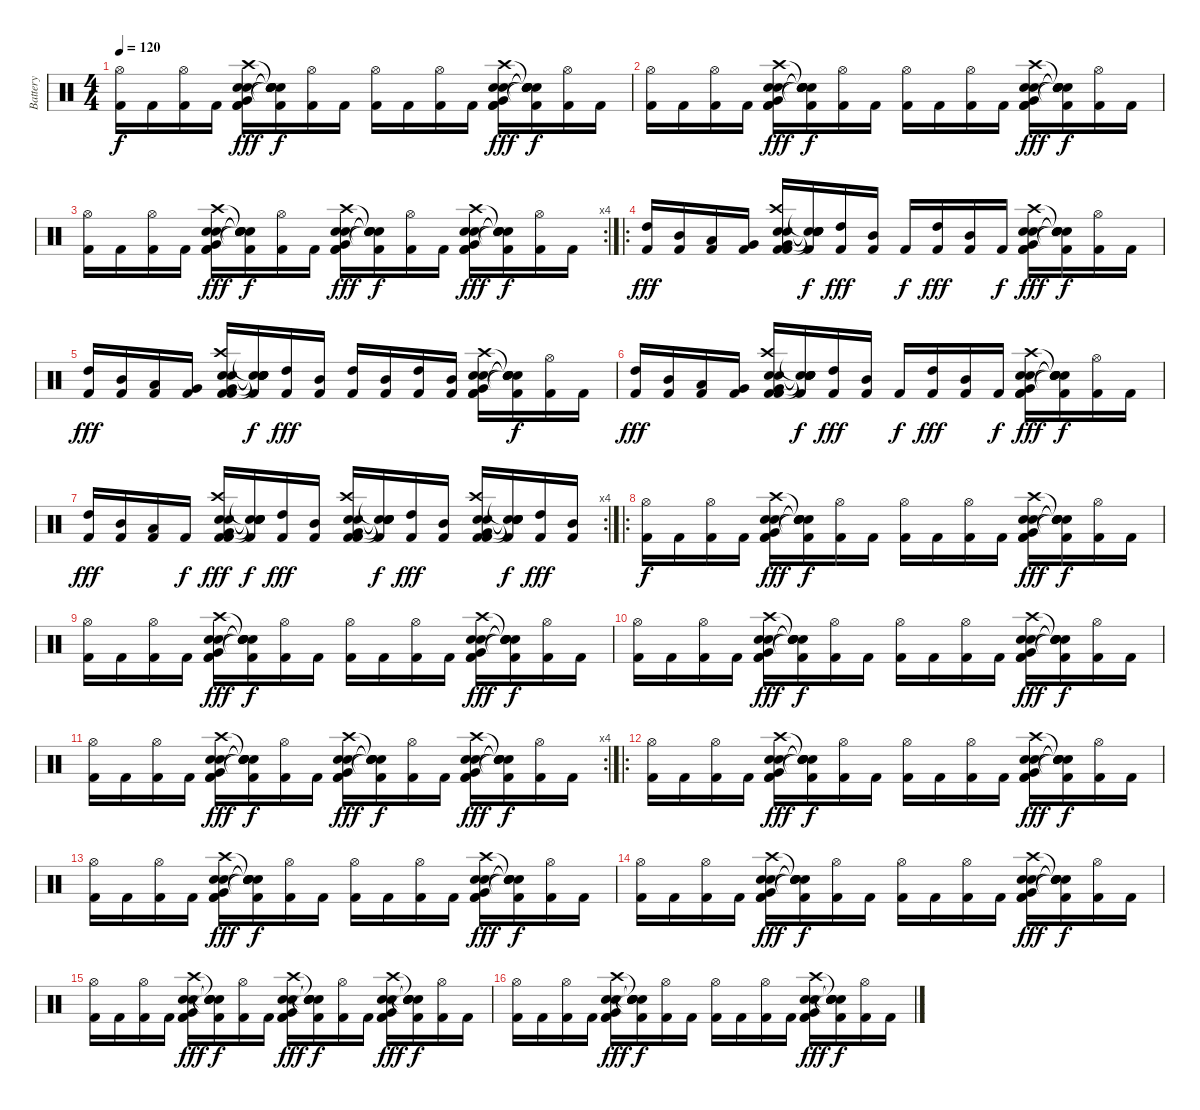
\track ("Battery" "Battery") {instrument percussion}
\staff {score}
\articulation defaults
\ts (4 4)
\tempo 120
\clef neutral
\ks c
("Hi-Hat (open)" "Kick (hit) 2").16{dy f} "Kick (hit) 2".16 ("Hi-Hat (open)" "Kick (hit) 2").16 "Kick (hit) 2".16 ("Crash high (hit)" "Kick (hit) 2" "Electric Snare (hit)" "Very Low Tom (hit)" "Electric Snare (hit)" "Kick (hit) 2").16{dy fff} ("Snare (hit)"{t} "Snare (hit)"{t} "Snare (hit)"{t} "Snare (hit)"{t} "Electric Snare (hit)"{t} "Kick (hit) 2").16{dy f} ("Hi-Hat (open)" "Kick (hit) 2").16 "Kick (hit) 2".16 ("Hi-Hat (open)" "Kick (hit) 2").16 "Kick (hit) 2".16 ("Hi-Hat (open)" "Kick (hit) 2").16 "Kick (hit) 2".16 ("Crash high (hit)" "Kick (hit) 2" "Electric Snare (hit)" "Very Low Tom (hit)" "Electric Snare (hit)" "Kick (hit) 2").16{dy fff} ("Snare (hit)"{t} "Snare (hit)"{t} "Snare (hit)"{t} "Snare (hit)"{t} "Snare (hit)"{t} "Kick (hit) 2").16{dy f} ("Hi-Hat (open)" "Kick (hit) 2").16 "Kick (hit) 2".16 |
("Hi-Hat (open)" "Kick (hit) 2").16 "Kick (hit) 2".16 ("Hi-Hat (open)" "Kick (hit) 2").16 "Kick (hit) 2".16 ("Crash high (hit)" "Kick (hit) 2" "Electric Snare (hit)" "Very Low Tom (hit)" "Electric Snare (hit)" "Kick (hit) 2").16{dy fff} ("Snare (hit)"{t} "Snare (hit)"{t} "Snare (hit)"{t} "Snare (hit)"{t} "Electric Snare (hit)"{t} "Kick (hit) 2").16{dy f} ("Hi-Hat (open)" "Kick (hit) 2").16 "Kick (hit) 2".16 ("Hi-Hat (open)" "Kick (hit) 2").16 "Kick (hit) 2".16 ("Hi-Hat (open)" "Kick (hit) 2").16 "Kick (hit) 2".16 ("Crash high (hit)" "Kick (hit) 2" "Electric Snare (hit)" "Very Low Tom (hit)" "Electric Snare (hit)" "Kick (hit) 2").16{dy fff} ("Snare (hit)"{t} "Snare (hit)"{t} "Snare (hit)"{t} "Snare (hit)"{t} "Snare (hit)"{t} "Kick (hit) 2").16{dy f} ("Hi-Hat (open)" "Kick (hit) 2").16 "Kick (hit) 2".16 |
\rc 4
("Hi-Hat (open)" "Kick (hit) 2").16 "Kick (hit) 2".16 ("Hi-Hat (open)" "Kick (hit) 2").16 "Kick (hit) 2".16 ("Crash high (hit)" "Kick (hit) 2" "Electric Snare (hit)" "Very Low Tom (hit)" "Electric Snare (hit)" "Kick (hit) 2").16{dy fff} ("Snare (hit)"{t} "Snare (hit)"{t} "Snare (hit)"{t} "Snare (hit)"{t} "Electric Snare (hit)"{t} "Kick (hit) 2").16{dy f} ("Hi-Hat (open)" "Kick (hit) 2").16 "Kick (hit) 2".16 ("Crash high (hit)" "Kick (hit) 2" "Electric Snare (hit)" "Very Low Tom (hit)" "Electric Snare (hit)" "Kick (hit) 2").16{dy fff} ("Snare (hit)"{t} "Snare (hit)"{t} "Snare (hit)"{t} "Snare (hit)"{t} "Snare (hit)"{t} "Kick (hit) 2").16{dy f} ("Hi-Hat (open)" "Kick (hit) 2").16 "Kick (hit) 2".16 ("Crash high (hit)" "Kick (hit) 2" "Electric Snare (hit)" "Very Low Tom (hit)" "Electric Snare (hit)" "Kick (hit) 2").16{dy fff} ("Snare (hit)"{t} "Snare (hit)"{t} "Snare (hit)"{t} "Snare (hit)"{t} "Snare (hit)"{t} "Kick (hit) 2").16{dy f} ("Hi-Hat (open)" "Kick (hit) 2").16 "Kick (hit) 2".16 |
\ro
("High Tom (hit)" "Kick (hit) 2").16{dy fff} ("Mid Tom (hit)" "Kick (hit) 2").16 ("Low Tom (hit)" "Kick (hit) 2").16 ("Very Low Tom (hit)" "Kick (hit) 2").16 ("Crash high (hit)" "Kick (hit) 2" "Electric Snare (hit)" "Very Low Tom (hit)" "Electric Snare (hit)" "Kick (hit) 2").16 ("Snare (hit)"{t} "Snare (hit)"{t} "Snare (hit)"{t} "Snare (hit)"{t} "Electric Snare (hit)"{t} "Kick (hit) 2").16{dy f} ("High Tom (hit)" "Kick (hit) 2").16{dy fff} ("Mid Tom (hit)" "Kick (hit) 2").16 "Kick (hit) 2".16{dy f} ("High Tom (hit)" "Kick (hit) 2").16{dy fff} ("Mid Tom (hit)" "Kick (hit) 2").16 "Kick (hit) 2".16{dy f} ("Crash high (hit)" "Kick (hit) 2" "Electric Snare (hit)" "Very Low Tom (hit)" "Electric Snare (hit)" "Kick (hit) 2").16{dy fff} ("Snare (hit)"{t} "Snare (hit)"{t} "Snare (hit)"{t} "Snare (hit)"{t} "Snare (hit)"{t} "Kick (hit) 2").16{dy f} ("Hi-Hat (open)" "Kick (hit) 2").16 "Kick (hit) 2".16 |
("High Tom (hit)" "Kick (hit) 2").16{dy fff} ("Mid Tom (hit)" "Kick (hit) 2").16 ("Low Tom (hit)" "Kick (hit) 2").16 ("Very Low Tom (hit)" "Kick (hit) 2").16 ("Crash high (hit)" "Kick (hit) 2" "Electric Snare (hit)" "Very Low Tom (hit)" "Electric Snare (hit)" "Kick (hit) 2").16 ("Snare (hit)"{t} "Snare (hit)"{t} "Snare (hit)"{t} "Snare (hit)"{t} "Electric Snare (hit)"{t} "Kick (hit) 2").16{dy f} ("High Tom (hit)" "Kick (hit) 2").16{dy fff} ("Mid Tom (hit)" "Kick (hit) 2").16 ("High Tom (hit)" "Kick (hit) 2").16 ("Mid Tom (hit)" "Kick (hit) 2").16 ("High Tom (hit)" "Kick (hit) 2").16 ("Mid Tom (hit)" "Kick (hit) 2").16 ("Crash high (hit)" "Kick (hit) 2" "Electric Snare (hit)" "Very Low Tom (hit)" "Electric Snare (hit)" "Kick (hit) 2").16 ("Snare (hit)"{t} "Snare (hit)"{t} "Snare (hit)"{t} "Snare (hit)"{t} "Snare (hit)"{t} "Kick (hit) 2").16{dy f} ("Hi-Hat (open)" "Kick (hit) 2").16 "Kick (hit) 2".16 |
("High Tom (hit)" "Kick (hit) 2").16{dy fff} ("Mid Tom (hit)" "Kick (hit) 2").16 ("Low Tom (hit)" "Kick (hit) 2").16 ("Very Low Tom (hit)" "Kick (hit) 2").16 ("Crash high (hit)" "Kick (hit) 2" "Electric Snare (hit)" "Very Low Tom (hit)" "Electric Snare (hit)" "Kick (hit) 2").16 ("Snare (hit)"{t} "Snare (hit)"{t} "Snare (hit)"{t} "Snare (hit)"{t} "Electric Snare (hit)"{t} "Kick (hit) 2").16{dy f} ("High Tom (hit)" "Kick (hit) 2").16{dy fff} ("Mid Tom (hit)" "Kick (hit) 2").16 "Kick (hit) 2".16{dy f} ("High Tom (hit)" "Kick (hit) 2").16{dy fff} ("Mid Tom (hit)" "Kick (hit) 2").16 "Kick (hit) 2".16{dy f} ("Crash high (hit)" "Kick (hit) 2" "Electric Snare (hit)" "Very Low Tom (hit)" "Electric Snare (hit)" "Kick (hit) 2").16{dy fff} ("Snare (hit)"{t} "Snare (hit)"{t} "Snare (hit)"{t} "Snare (hit)"{t} "Snare (hit)"{t} "Kick (hit) 2").16{dy f} ("Hi-Hat (open)" "Kick (hit) 2").16 "Kick (hit) 2".16 |
\rc 4
("High Tom (hit)" "Kick (hit) 2").16{dy fff} ("Mid Tom (hit)" "Kick (hit) 2").16 ("Low Tom (hit)" "Kick (hit) 2").16 "Kick (hit) 2".16{dy f} ("Crash high (hit)" "Kick (hit) 2" "Electric Snare (hit)" "Very Low Tom (hit)" "Electric Snare (hit)" "Kick (hit) 2").16{dy fff} ("Snare (hit)"{t} "Snare (hit)"{t} "Snare (hit)"{t} "Snare (hit)"{t} "Electric Snare (hit)"{t} "Kick (hit) 2").16{dy f} ("High Tom (hit)" "Kick (hit) 2").16{dy fff} ("Mid Tom (hit)" "Kick (hit) 2").16 ("Crash high (hit)" "Kick (hit) 2" "Electric Snare (hit)" "Very Low Tom (hit)" "Electric Snare (hit)" "Kick (hit) 2").16 ("Snare (hit)"{t} "Snare (hit)"{t} "Snare (hit)"{t} "Snare (hit)"{t} "Snare (hit)"{t} "Kick (hit) 2").16{dy f} ("High Tom (hit)" "Kick (hit) 2").16{dy fff} ("Mid Tom (hit)" "Kick (hit) 2").16 ("Crash high (hit)" "Kick (hit) 2" "Electric Snare (hit)" "Very Low Tom (hit)" "Electric Snare (hit)" "Kick (hit) 2").16 ("Snare (hit)"{t} "Snare (hit)"{t} "Snare (hit)"{t} "Snare (hit)"{t} "Snare (hit)"{t} "Kick (hit) 2").16{dy f} ("High Tom (hit)" "Kick (hit) 2").16{dy fff} ("Mid Tom (hit)" "Kick (hit) 2").16 |
\ro
("Hi-Hat (open)" "Kick (hit) 2").16{dy f} "Kick (hit) 2".16 ("Hi-Hat (open)" "Kick (hit) 2").16 "Kick (hit) 2".16 ("Crash high (hit)" "Kick (hit) 2" "Electric Snare (hit)" "Very Low Tom (hit)" "Electric Snare (hit)" "Kick (hit) 2").16{dy fff} ("Snare (hit)"{t} "Snare (hit)"{t} "Snare (hit)"{t} "Snare (hit)"{t} "Electric Snare (hit)"{t} "Kick (hit) 2").16{dy f} ("Hi-Hat (open)" "Kick (hit) 2").16 "Kick (hit) 2".16 ("Hi-Hat (open)" "Kick (hit) 2").16 "Kick (hit) 2".16 ("Hi-Hat (open)" "Kick (hit) 2").16 "Kick (hit) 2".16 ("Crash high (hit)" "Kick (hit) 2" "Electric Snare (hit)" "Very Low Tom (hit)" "Electric Snare (hit)" "Kick (hit) 2").16{dy fff} ("Snare (hit)"{t} "Snare (hit)"{t} "Snare (hit)"{t} "Snare (hit)"{t} "Snare (hit)"{t} "Kick (hit) 2").16{dy f} ("Hi-Hat (open)" "Kick (hit) 2").16 "Kick (hit) 2".16 |
("Hi-Hat (open)" "Kick (hit) 2").16 "Kick (hit) 2".16 ("Hi-Hat (open)" "Kick (hit) 2").16 "Kick (hit) 2".16 ("Crash high (hit)" "Kick (hit) 2" "Electric Snare (hit)" "Very Low Tom (hit)" "Electric Snare (hit)" "Kick (hit) 2").16{dy fff} ("Snare (hit)"{t} "Snare (hit)"{t} "Snare (hit)"{t} "Snare (hit)"{t} "Electric Snare (hit)"{t} "Kick (hit) 2").16{dy f} ("Hi-Hat (open)" "Kick (hit) 2").16 "Kick (hit) 2".16 ("Hi-Hat (open)" "Kick (hit) 2").16 "Kick (hit) 2".16 ("Hi-Hat (open)" "Kick (hit) 2").16 "Kick (hit) 2".16 ("Crash high (hit)" "Kick (hit) 2" "Electric Snare (hit)" "Very Low Tom (hit)" "Electric Snare (hit)" "Kick (hit) 2").16{dy fff} ("Snare (hit)"{t} "Snare (hit)"{t} "Snare (hit)"{t} "Snare (hit)"{t} "Snare (hit)"{t} "Kick (hit) 2").16{dy f} ("Hi-Hat (open)" "Kick (hit) 2").16 "Kick (hit) 2".16 |
("Hi-Hat (open)" "Kick (hit) 2").16 "Kick (hit) 2".16 ("Hi-Hat (open)" "Kick (hit) 2").16 "Kick (hit) 2".16 ("Crash high (hit)" "Kick (hit) 2" "Electric Snare (hit)" "Very Low Tom (hit)" "Electric Snare (hit)" "Kick (hit) 2").16{dy fff} ("Snare (hit)"{t} "Snare (hit)"{t} "Snare (hit)"{t} "Snare (hit)"{t} "Electric Snare (hit)"{t} "Kick (hit) 2").16{dy f} ("Hi-Hat (open)" "Kick (hit) 2").16 "Kick (hit) 2".16 ("Hi-Hat (open)" "Kick (hit) 2").16 "Kick (hit) 2".16 ("Hi-Hat (open)" "Kick (hit) 2").16 "Kick (hit) 2".16 ("Crash high (hit)" "Kick (hit) 2" "Electric Snare (hit)" "Very Low Tom (hit)" "Electric Snare (hit)" "Kick (hit) 2").16{dy fff} ("Snare (hit)"{t} "Snare (hit)"{t} "Snare (hit)"{t} "Snare (hit)"{t} "Snare (hit)"{t} "Kick (hit) 2").16{dy f} ("Hi-Hat (open)" "Kick (hit) 2").16 "Kick (hit) 2".16 |
\rc 4
("Hi-Hat (open)" "Kick (hit) 2").16 "Kick (hit) 2".16 ("Hi-Hat (open)" "Kick (hit) 2").16 "Kick (hit) 2".16 ("Crash high (hit)" "Kick (hit) 2" "Electric Snare (hit)" "Very Low Tom (hit)" "Electric Snare (hit)" "Kick (hit) 2").16{dy fff} ("Snare (hit)"{t} "Snare (hit)"{t} "Snare (hit)"{t} "Snare (hit)"{t} "Electric Snare (hit)"{t} "Kick (hit) 2").16{dy f} ("Hi-Hat (open)" "Kick (hit) 2").16 "Kick (hit) 2".16 ("Crash high (hit)" "Kick (hit) 2" "Electric Snare (hit)" "Very Low Tom (hit)" "Electric Snare (hit)" "Kick (hit) 2").16{dy fff} ("Snare (hit)"{t} "Snare (hit)"{t} "Snare (hit)"{t} "Snare (hit)"{t} "Snare (hit)"{t} "Kick (hit) 2").16{dy f} ("Hi-Hat (open)" "Kick (hit) 2").16 "Kick (hit) 2".16 ("Crash high (hit)" "Kick (hit) 2" "Electric Snare (hit)" "Very Low Tom (hit)" "Electric Snare (hit)" "Kick (hit) 2").16{dy fff} ("Snare (hit)"{t} "Snare (hit)"{t} "Snare (hit)"{t} "Snare (hit)"{t} "Snare (hit)"{t} "Kick (hit) 2").16{dy f} ("Hi-Hat (open)" "Kick (hit) 2").16 "Kick (hit) 2".16 |
\ro
("Hi-Hat (open)" "Kick (hit) 2").16 "Kick (hit) 2".16 ("Hi-Hat (open)" "Kick (hit) 2").16 "Kick (hit) 2".16 ("Crash high (hit)" "Kick (hit) 2" "Electric Snare (hit)" "Very Low Tom (hit)" "Electric Snare (hit)" "Kick (hit) 2").16{dy fff} ("Snare (hit)"{t} "Snare (hit)"{t} "Snare (hit)"{t} "Snare (hit)"{t} "Electric Snare (hit)"{t} "Kick (hit) 2").16{dy f} ("Hi-Hat (open)" "Kick (hit) 2").16 "Kick (hit) 2".16 ("Hi-Hat (open)" "Kick (hit) 2").16 "Kick (hit) 2".16 ("Hi-Hat (open)" "Kick (hit) 2").16 "Kick (hit) 2".16 ("Crash high (hit)" "Kick (hit) 2" "Electric Snare (hit)" "Very Low Tom (hit)" "Electric Snare (hit)" "Kick (hit) 2").16{dy fff} ("Snare (hit)"{t} "Snare (hit)"{t} "Snare (hit)"{t} "Snare (hit)"{t} "Snare (hit)"{t} "Kick (hit) 2").16{dy f} ("Hi-Hat (open)" "Kick (hit) 2").16 "Kick (hit) 2".16 |
("Hi-Hat (open)" "Kick (hit) 2").16 "Kick (hit) 2".16 ("Hi-Hat (open)" "Kick (hit) 2").16 "Kick (hit) 2".16 ("Crash high (hit)" "Kick (hit) 2" "Electric Snare (hit)" "Very Low Tom (hit)" "Electric Snare (hit)" "Kick (hit) 2").16{dy fff} ("Snare (hit)"{t} "Snare (hit)"{t} "Snare (hit)"{t} "Snare (hit)"{t} "Electric Snare (hit)"{t} "Kick (hit) 2").16{dy f} ("Hi-Hat (open)" "Kick (hit) 2").16 "Kick (hit) 2".16 ("Hi-Hat (open)" "Kick (hit) 2").16 "Kick (hit) 2".16 ("Hi-Hat (open)" "Kick (hit) 2").16 "Kick (hit) 2".16 ("Crash high (hit)" "Kick (hit) 2" "Electric Snare (hit)" "Very Low Tom (hit)" "Electric Snare (hit)" "Kick (hit) 2").16{dy fff} ("Snare (hit)"{t} "Snare (hit)"{t} "Snare (hit)"{t} "Snare (hit)"{t} "Snare (hit)"{t} "Kick (hit) 2").16{dy f} ("Hi-Hat (open)" "Kick (hit) 2").16 "Kick (hit) 2".16 |
("Hi-Hat (open)" "Kick (hit) 2").16 "Kick (hit) 2".16 ("Hi-Hat (open)" "Kick (hit) 2").16 "Kick (hit) 2".16 ("Crash high (hit)" "Kick (hit) 2" "Electric Snare (hit)" "Very Low Tom (hit)" "Electric Snare (hit)" "Kick (hit) 2").16{dy fff} ("Snare (hit)"{t} "Snare (hit)"{t} "Snare (hit)"{t} "Snare (hit)"{t} "Electric Snare (hit)"{t} "Kick (hit) 2").16{dy f} ("Hi-Hat (open)" "Kick (hit) 2").16 "Kick (hit) 2".16 ("Hi-Hat (open)" "Kick (hit) 2").16 "Kick (hit) 2".16 ("Hi-Hat (open)" "Kick (hit) 2").16 "Kick (hit) 2".16 ("Crash high (hit)" "Kick (hit) 2" "Electric Snare (hit)" "Very Low Tom (hit)" "Electric Snare (hit)" "Kick (hit) 2").16{dy fff} ("Snare (hit)"{t} "Snare (hit)"{t} "Snare (hit)"{t} "Snare (hit)"{t} "Snare (hit)"{t} "Kick (hit) 2").16{dy f} ("Hi-Hat (open)" "Kick (hit) 2").16 "Kick (hit) 2".16 |
("Hi-Hat (open)" "Kick (hit) 2").16 "Kick (hit) 2".16 ("Hi-Hat (open)" "Kick (hit) 2").16 "Kick (hit) 2".16 ("Crash high (hit)" "Kick (hit) 2" "Electric Snare (hit)" "Very Low Tom (hit)" "Electric Snare (hit)" "Kick (hit) 2").16{dy fff} ("Snare (hit)"{t} "Snare (hit)"{t} "Snare (hit)"{t} "Snare (hit)"{t} "Electric Snare (hit)"{t} "Kick (hit) 2").16{dy f} ("Hi-Hat (open)" "Kick (hit) 2").16 "Kick (hit) 2".16 ("Crash high (hit)" "Kick (hit) 2" "Electric Snare (hit)" "Very Low Tom (hit)" "Electric Snare (hit)" "Kick (hit) 2").16{dy fff} ("Snare (hit)"{t} "Snare (hit)"{t} "Snare (hit)"{t} "Snare (hit)"{t} "Snare (hit)"{t} "Kick (hit) 2").16{dy f} ("Hi-Hat (open)" "Kick (hit) 2").16 "Kick (hit) 2".16 ("Crash high (hit)" "Kick (hit) 2" "Electric Snare (hit)" "Very Low Tom (hit)" "Electric Snare (hit)" "Kick (hit) 2").16{dy fff} ("Snare (hit)"{t} "Snare (hit)"{t} "Snare (hit)"{t} "Snare (hit)"{t} "Snare (hit)"{t} "Kick (hit) 2").16{dy f} ("Hi-Hat (open)" "Kick (hit) 2").16 "Kick (hit) 2".16 |
("Hi-Hat (open)" "Kick (hit) 2").16 "Kick (hit) 2".16 ("Hi-Hat (open)" "Kick (hit) 2").16 "Kick (hit) 2".16 ("Crash high (hit)" "Kick (hit) 2" "Electric Snare (hit)" "Very Low Tom (hit)" "Electric Snare (hit)" "Kick (hit) 2").16{dy fff} ("Snare (hit)"{t} "Snare (hit)"{t} "Snare (hit)"{t} "Snare (hit)"{t} "Electric Snare (hit)"{t} "Kick (hit) 2").16{dy f} ("Hi-Hat (open)" "Kick (hit) 2").16 "Kick (hit) 2".16 ("Hi-Hat (open)" "Kick (hit) 2").16 "Kick (hit) 2".16 ("Hi-Hat (open)" "Kick (hit) 2").16 "Kick (hit) 2".16 ("Crash high (hit)" "Kick (hit) 2" "Electric Snare (hit)" "Very Low Tom (hit)" "Electric Snare (hit)" "Kick (hit) 2").16{dy fff} ("Snare (hit)"{t} "Snare (hit)"{t} "Snare (hit)"{t} "Snare (hit)"{t} "Snare (hit)"{t} "Kick (hit) 2").16{dy f} ("Hi-Hat (open)" "Kick (hit) 2").16 "Kick (hit) 2".16
